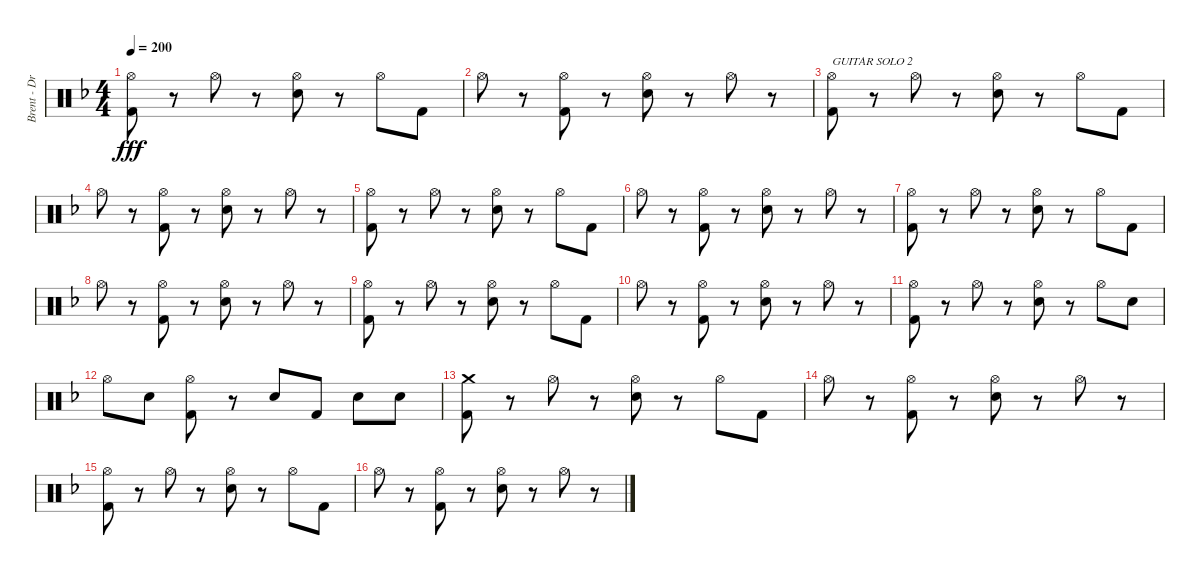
\track ("Brent - Drums" "Brent - Dr") {instrument percussion}
\staff {score}
\articulation defaults
\ts (4 4)
\tempo 200
\clef neutral
\ks dminor
("Hi-Hat (open)" "Kick (hit) 2").8{dy fff} r.8 "Hi-Hat (open)".8 r.8 ("Hi-Hat (open)" "Snare (hit) 2").8 r.8 "Hi-Hat (open)".8 "Kick (hit) 2".8 |
"Hi-Hat (open)".8 r.8 ("Hi-Hat (open)" "Kick (hit) 2").8 r.8 ("Hi-Hat (open)" "Snare (hit) 2").8 r.8 "Hi-Hat (open)".8 r.8 |
("Hi-Hat (open)" "Kick (hit) 2").8{txt "GUITAR SOLO 2"} r.8 "Hi-Hat (open)".8 r.8 ("Hi-Hat (open)" "Snare (hit) 2").8 r.8 "Hi-Hat (open)".8 "Kick (hit) 2".8 |
"Hi-Hat (open)".8 r.8 ("Hi-Hat (open)" "Kick (hit) 2").8 r.8 ("Hi-Hat (open)" "Snare (hit) 2").8 r.8 "Hi-Hat (open)".8 r.8 |
("Hi-Hat (open)" "Kick (hit) 2").8 r.8 "Hi-Hat (open)".8 r.8 ("Hi-Hat (open)" "Snare (hit) 2").8 r.8 "Hi-Hat (open)".8 "Kick (hit) 2".8 |
"Hi-Hat (open)".8 r.8 ("Hi-Hat (open)" "Kick (hit) 2").8 r.8 ("Hi-Hat (open)" "Snare (hit) 2").8 r.8 "Hi-Hat (open)".8 r.8 |
("Hi-Hat (open)" "Kick (hit) 2").8 r.8 "Hi-Hat (open)".8 r.8 ("Hi-Hat (open)" "Snare (hit) 2").8 r.8 "Hi-Hat (open)".8 "Kick (hit) 2".8 |
"Hi-Hat (open)".8 r.8 ("Hi-Hat (open)" "Kick (hit) 2").8 r.8 ("Hi-Hat (open)" "Snare (hit) 2").8 r.8 "Hi-Hat (open)".8 r.8 |
("Hi-Hat (open)" "Kick (hit) 2").8 r.8 "Hi-Hat (open)".8 r.8 ("Hi-Hat (open)" "Snare (hit) 2").8 r.8 "Hi-Hat (open)".8 "Kick (hit) 2".8 |
"Hi-Hat (open)".8 r.8 ("Hi-Hat (open)" "Kick (hit) 2").8 r.8 ("Hi-Hat (open)" "Snare (hit) 2").8 r.8 "Hi-Hat (open)".8 r.8 |
("Hi-Hat (open)" "Kick (hit) 2").8 r.8 "Hi-Hat (open)".8 r.8 ("Hi-Hat (open)" "Snare (hit) 2").8 r.8 "Hi-Hat (open)".8 "Snare (hit) 2".8 |
"Hi-Hat (open)".8 "Snare (hit) 2".8 ("Hi-Hat (open)" "Kick (hit) 2").8 r.8 "Snare (hit) 2".8 "Kick (hit) 2".8 "Snare (hit) 2".8 "Snare (hit) 2".8 |
("Crash medium (hit)" "Kick (hit) 2").8 r.8 "Hi-Hat (open)".8 r.8 ("Hi-Hat (open)" "Snare (hit) 2").8 r.8 "Hi-Hat (open)".8 "Kick (hit) 2".8 |
"Hi-Hat (open)".8 r.8 ("Hi-Hat (open)" "Kick (hit) 2").8 r.8 ("Hi-Hat (open)" "Snare (hit) 2").8 r.8 "Hi-Hat (open)".8 r.8 |
("Hi-Hat (open)" "Kick (hit) 2").8 r.8 "Hi-Hat (open)".8 r.8 ("Hi-Hat (open)" "Snare (hit) 2").8 r.8 "Hi-Hat (open)".8 "Kick (hit) 2".8 |
"Hi-Hat (open)".8 r.8 ("Hi-Hat (open)" "Kick (hit) 2").8 r.8 ("Hi-Hat (open)" "Snare (hit) 2").8 r.8 "Hi-Hat (open)".8 r.8
